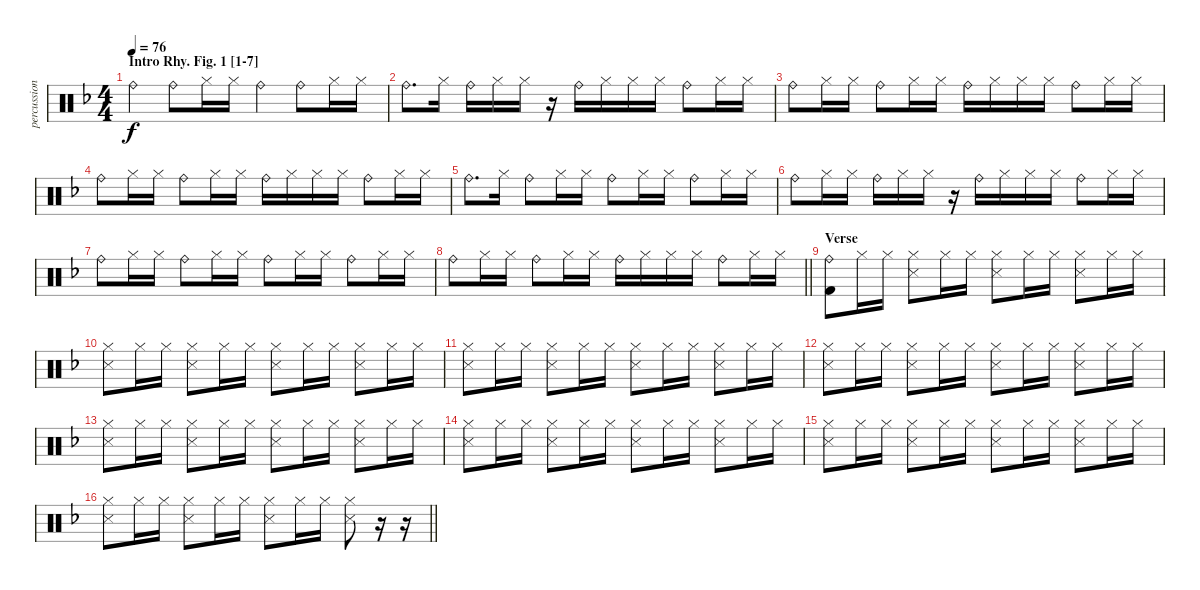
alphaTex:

\track ("percussion" "percussion") {instrument percussion}
\staff {score}
\articulation defaults
\ts (4 4)
\section ("" "Intro Rhy. Fig. 1 [1-7]")
\tempo 76
\clef neutral
\ks f "Ride (bell)".4{dy f} "Ride (bell)".8 "Hi-Hat (closed)".16 "Hi-Hat (closed)".16 "Ride (bell)".4 "Ride (bell)".8 "Hi-Hat (closed)".16 "Hi-Hat (closed)".16
|
"Ride (bell)".8{d} "Hi-Hat (closed)".16 "Ride (bell)".16 "Hi-Hat (closed)".16 "Hi-Hat (closed)".16 r.16 "Ride (bell)".16 "Hi-Hat (closed)".16 "Hi-Hat (closed)".16 "Hi-Hat (closed)".16 "Ride (bell)".8 "Hi-Hat (closed)".16 "Hi-Hat (closed)".16 |
"Ride (bell)".8 "Hi-Hat (closed)".16 "Hi-Hat (closed)".16 "Ride (bell)".8 "Hi-Hat (closed)".16 "Hi-Hat (closed)".16 "Ride (bell)".16 "Hi-Hat (closed)".16 "Hi-Hat (closed)".16 "Hi-Hat (closed)".16 "Ride (bell)".8 "Hi-Hat (closed)".16 "Hi-Hat (closed)".16 |
"Ride (bell)".8 "Hi-Hat (closed)".16 "Hi-Hat (closed)".16 "Ride (bell)".8 "Hi-Hat (closed)".16 "Hi-Hat (closed)".16 "Ride (bell)".16 "Hi-Hat (closed)".16 "Hi-Hat (closed)".16 "Hi-Hat (closed)".16 "Ride (bell)".8 "Hi-Hat (closed)".16 "Hi-Hat (closed)".16 |
"Ride (bell)".8{d} "Hi-Hat (closed)".16 "Ride (bell)".8 "Hi-Hat (closed)".16 "Hi-Hat (closed)".16 "Ride (bell)".8 "Hi-Hat (closed)".16 "Hi-Hat (closed)".16 "Ride (bell)".8 "Hi-Hat (closed)".16 "Hi-Hat (closed)".16 |
"Ride (bell)".8 "Hi-Hat (closed)".16 "Hi-Hat (closed)".16 "Ride (bell)".16 "Hi-Hat (closed)".16 "Hi-Hat (closed)".16 r.16 "Ride (bell)".16 "Hi-Hat (closed)".16 "Hi-Hat (closed)".16 "Hi-Hat (closed)".16 "Ride (bell)".8 "Hi-Hat (closed)".16 "Hi-Hat (closed)".16 |
"Ride (bell)".8 "Hi-Hat (closed)".16 "Hi-Hat (closed)".16 "Ride (bell)".8 "Hi-Hat (closed)".16 "Hi-Hat (closed)".16 "Ride (bell)".8 "Hi-Hat (closed)".16 "Hi-Hat (closed)".16 "Ride (bell)".8 "Hi-Hat (closed)".16 "Hi-Hat (closed)".16 |
\barLineRight lightlight "Ride (bell)".8 "Hi-Hat (closed)".16 "Hi-Hat (closed)".16 "Ride (bell)".8 "Hi-Hat (closed)".16 "Hi-Hat (closed)".16 "Ride (bell)".16 "Hi-Hat (closed)".16 "Hi-Hat (closed)".16 "Hi-Hat (closed)".16 "Ride (bell)".8 "Hi-Hat (closed)".16 "Hi-Hat (closed)".16
|
\section ("" "Verse")
("Ride (bell)" "Kick (hit) 2").8 "Hi-Hat (closed)".16 "Hi-Hat (closed)".16 ("Snare (side stick) 3" "Hi-Hat (closed)").8 "Hi-Hat (closed)".16 "Hi-Hat (closed)".16 ("Snare (side stick) 3" "Hi-Hat (closed)").8 "Hi-Hat (closed)".16 "Hi-Hat (closed)".16 ("Snare (side stick) 3" "Hi-Hat (closed)").8 "Hi-Hat (closed)".16 "Hi-Hat (closed)".16 |
("Snare (side stick) 3" "Hi-Hat (closed)").8 "Hi-Hat (closed)".16 "Hi-Hat (closed)".16 ("Snare (side stick) 3" "Hi-Hat (closed)").8 "Hi-Hat (closed)".16 "Hi-Hat (closed)".16 ("Snare (side stick) 3" "Hi-Hat (closed)").8 "Hi-Hat (closed)".16 "Hi-Hat (closed)".16 ("Snare (side stick) 3" "Hi-Hat (closed)").8 "Hi-Hat (closed)".16 "Hi-Hat (closed)".16 |
("Snare (side stick) 3" "Hi-Hat (closed)").8 "Hi-Hat (closed)".16 "Hi-Hat (closed)".16 ("Snare (side stick) 3" "Hi-Hat (closed)").8 "Hi-Hat (closed)".16 "Hi-Hat (closed)".16 ("Snare (side stick) 3" "Hi-Hat (closed)").8 "Hi-Hat (closed)".16 "Hi-Hat (closed)".16 ("Snare (side stick) 3" "Hi-Hat (closed)").8 "Hi-Hat (closed)".16 "Hi-Hat (closed)".16 |
("Snare (side stick) 3" "Hi-Hat (closed)").8 "Hi-Hat (closed)".16 "Hi-Hat (closed)".16 ("Snare (side stick) 3" "Hi-Hat (closed)").8 "Hi-Hat (closed)".16 "Hi-Hat (closed)".16 ("Snare (side stick) 3" "Hi-Hat (closed)").8 "Hi-Hat (closed)".16 "Hi-Hat (closed)".16 ("Snare (side stick) 3" "Hi-Hat (closed)").8 "Hi-Hat (closed)".16 "Hi-Hat (closed)".16 |
("Snare (side stick) 3" "Hi-Hat (closed)").8 "Hi-Hat (closed)".16 "Hi-Hat (closed)".16 ("Snare (side stick) 3" "Hi-Hat (closed)").8 "Hi-Hat (closed)".16 "Hi-Hat (closed)".16 ("Snare (side stick) 3" "Hi-Hat (closed)").8 "Hi-Hat (closed)".16 "Hi-Hat (closed)".16 ("Snare (side stick) 3" "Hi-Hat (closed)").8 "Hi-Hat (closed)".16 "Hi-Hat (closed)".16 |
("Snare (side stick) 3" "Hi-Hat (closed)").8 "Hi-Hat (closed)".16 "Hi-Hat (closed)".16 ("Snare (side stick) 3" "Hi-Hat (closed)").8 "Hi-Hat (closed)".16 "Hi-Hat (closed)".16 ("Snare (side stick) 3" "Hi-Hat (closed)").8 "Hi-Hat (closed)".16 "Hi-Hat (closed)".16 ("Snare (side stick) 3" "Hi-Hat (closed)").8 "Hi-Hat (closed)".16 "Hi-Hat (closed)".16 |
("Snare (side stick) 3" "Hi-Hat (closed)").8 "Hi-Hat (closed)".16 "Hi-Hat (closed)".16 ("Snare (side stick) 3" "Hi-Hat (closed)").8 "Hi-Hat (closed)".16 "Hi-Hat (closed)".16 ("Snare (side stick) 3" "Hi-Hat (closed)").8 "Hi-Hat (closed)".16 "Hi-Hat (closed)".16 ("Snare (side stick) 3" "Hi-Hat (closed)").8 "Hi-Hat (closed)".16 "Hi-Hat (closed)".16 |
\barLineRight lightlight
("Snare (side stick) 3" "Hi-Hat (closed)").8 "Hi-Hat (closed)".16 "Hi-Hat (closed)".16 ("Snare (side stick) 3" "Hi-Hat (closed)").8 "Hi-Hat (closed)".16 "Hi-Hat (closed)".16 ("Snare (side stick) 3" "Hi-Hat (closed)").8 "Hi-Hat (closed)".16 "Hi-Hat (closed)".16 ("Snare (side stick) 3" "Hi-Hat (closed)").8 r.16 r.16
